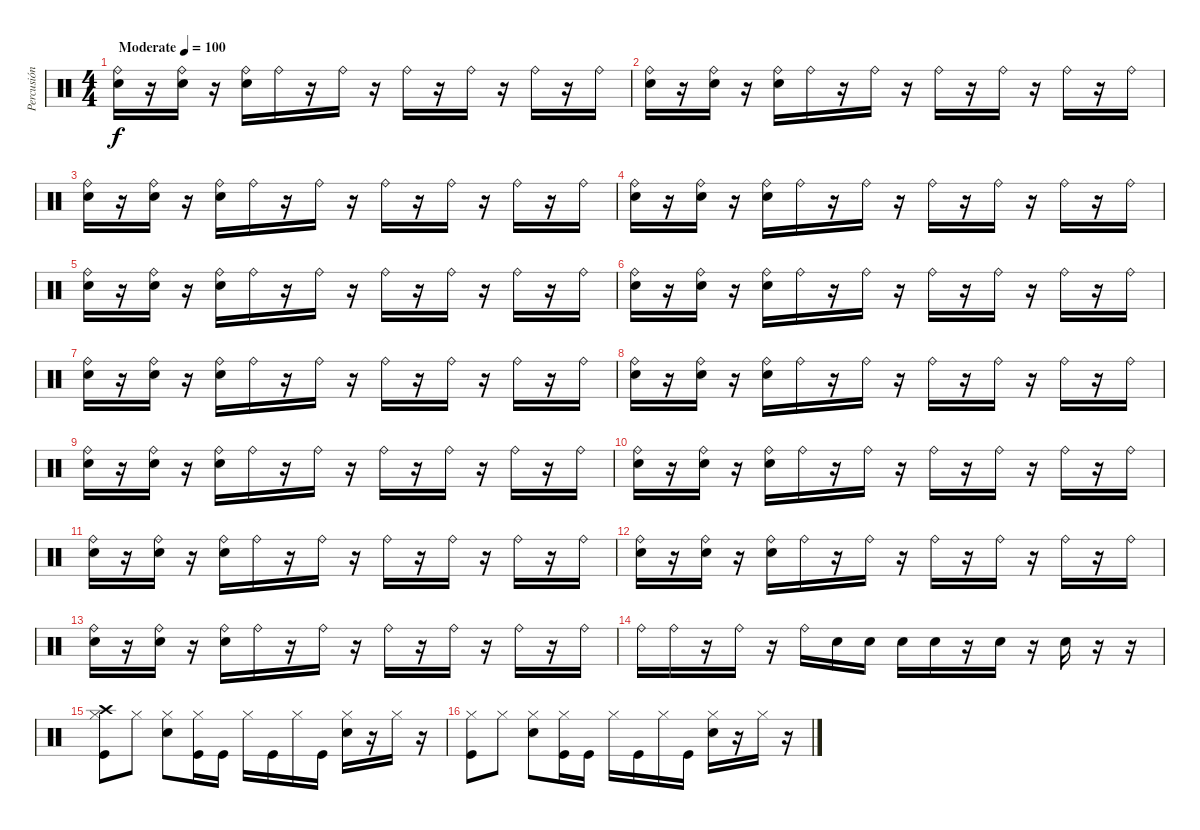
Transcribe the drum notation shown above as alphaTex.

\track ("Percusión" "Percusión") {instrument percussion}
\staff {score}
\articulation defaults
\ts (4 4)
\tempo (100 "Moderate")
\clef neutral
\ks c
("Ride (bell)" "Electric Snare (hit)").16{dy f} r.16 ("Ride (bell)" "Electric Snare (hit)").16 r.16 ("Ride (bell)" "Electric Snare (hit)").16 "Ride (bell)".16 r.16 "Ride (bell)".16 r.16 "Ride (bell)".16 r.16 "Ride (bell)".16 r.16 "Ride (bell)".16 r.16 "Ride (bell)".16 |
("Ride (bell)" "Electric Snare (hit)").16 r.16 ("Ride (bell)" "Electric Snare (hit)").16 r.16 ("Ride (bell)" "Electric Snare (hit)").16 "Ride (bell)".16 r.16 "Ride (bell)".16 r.16 "Ride (bell)".16 r.16 "Ride (bell)".16 r.16 "Ride (bell)".16 r.16 "Ride (bell)".16 |
("Ride (bell)" "Electric Snare (hit)").16 r.16 ("Ride (bell)" "Electric Snare (hit)").16 r.16 ("Ride (bell)" "Electric Snare (hit)").16 "Ride (bell)".16 r.16 "Ride (bell)".16 r.16 "Ride (bell)".16 r.16 "Ride (bell)".16 r.16 "Ride (bell)".16 r.16 "Ride (bell)".16 |
("Ride (bell)" "Electric Snare (hit)").16 r.16 ("Ride (bell)" "Electric Snare (hit)").16 r.16 ("Ride (bell)" "Electric Snare (hit)").16 "Ride (bell)".16 r.16 "Ride (bell)".16 r.16 "Ride (bell)".16 r.16 "Ride (bell)".16 r.16 "Ride (bell)".16 r.16 "Ride (bell)".16 |
("Ride (bell)" "Electric Snare (hit)").16 r.16 ("Ride (bell)" "Electric Snare (hit)").16 r.16 ("Ride (bell)" "Electric Snare (hit)").16 "Ride (bell)".16 r.16 "Ride (bell)".16 r.16 "Ride (bell)".16 r.16 "Ride (bell)".16 r.16 "Ride (bell)".16 r.16 "Ride (bell)".16 |
("Ride (bell)" "Electric Snare (hit)").16 r.16 ("Ride (bell)" "Electric Snare (hit)").16 r.16 ("Ride (bell)" "Electric Snare (hit)").16 "Ride (bell)".16 r.16 "Ride (bell)".16 r.16 "Ride (bell)".16 r.16 "Ride (bell)".16 r.16 "Ride (bell)".16 r.16 "Ride (bell)".16 |
("Ride (bell)" "Electric Snare (hit)").16 r.16 ("Ride (bell)" "Electric Snare (hit)").16 r.16 ("Ride (bell)" "Electric Snare (hit)").16 "Ride (bell)".16 r.16 "Ride (bell)".16 r.16 "Ride (bell)".16 r.16 "Ride (bell)".16 r.16 "Ride (bell)".16 r.16 "Ride (bell)".16 |
("Ride (bell)" "Electric Snare (hit)").16 r.16 ("Ride (bell)" "Electric Snare (hit)").16 r.16 ("Ride (bell)" "Electric Snare (hit)").16 "Ride (bell)".16 r.16 "Ride (bell)".16 r.16 "Ride (bell)".16 r.16 "Ride (bell)".16 r.16 "Ride (bell)".16 r.16 "Ride (bell)".16 |
("Ride (bell)" "Electric Snare (hit)").16 r.16 ("Ride (bell)" "Electric Snare (hit)").16 r.16 ("Ride (bell)" "Electric Snare (hit)").16 "Ride (bell)".16 r.16 "Ride (bell)".16 r.16 "Ride (bell)".16 r.16 "Ride (bell)".16 r.16 "Ride (bell)".16 r.16 "Ride (bell)".16 |
("Ride (bell)" "Electric Snare (hit)").16 r.16 ("Ride (bell)" "Electric Snare (hit)").16 r.16 ("Ride (bell)" "Electric Snare (hit)").16 "Ride (bell)".16 r.16 "Ride (bell)".16 r.16 "Ride (bell)".16 r.16 "Ride (bell)".16 r.16 "Ride (bell)".16 r.16 "Ride (bell)".16 |
("Ride (bell)" "Electric Snare (hit)").16 r.16 ("Ride (bell)" "Electric Snare (hit)").16 r.16 ("Ride (bell)" "Electric Snare (hit)").16 "Ride (bell)".16 r.16 "Ride (bell)".16 r.16 "Ride (bell)".16 r.16 "Ride (bell)".16 r.16 "Ride (bell)".16 r.16 "Ride (bell)".16 |
("Ride (bell)" "Electric Snare (hit)").16 r.16 ("Ride (bell)" "Electric Snare (hit)").16 r.16 ("Ride (bell)" "Electric Snare (hit)").16 "Ride (bell)".16 r.16 "Ride (bell)".16 r.16 "Ride (bell)".16 r.16 "Ride (bell)".16 r.16 "Ride (bell)".16 r.16 "Ride (bell)".16 |
("Ride (bell)" "Electric Snare (hit)").16 r.16 ("Ride (bell)" "Electric Snare (hit)").16 r.16 ("Ride (bell)" "Electric Snare (hit)").16 "Ride (bell)".16 r.16 "Ride (bell)".16 r.16 "Ride (bell)".16 r.16 "Ride (bell)".16 r.16 "Ride (bell)".16 r.16 "Ride (bell)".16 |
"Ride (bell)".16 "Ride (bell)".16 r.16 "Ride (bell)".16 r.16 "Ride (bell)".16 "Electric Snare (hit)".16 "Electric Snare (hit)".16 "Electric Snare (hit)".16 "Electric Snare (hit)".16 r.16 "Electric Snare (hit)".16 r.16 "Electric Snare (hit)".16 r.16 r.16 |
("Hi-Hat (closed)" "Kick (hit)" "Crash high (hit)").8 "Hi-Hat (closed)".8 ("Hi-Hat (closed)" "Electric Snare (hit)").8 ("Hi-Hat (closed)" "Kick (hit)").16 "Kick (hit)".16 "Hi-Hat (closed)".16 "Kick (hit)".16 "Hi-Hat (closed)".16 "Kick (hit)".16 ("Hi-Hat (closed)" "Electric Snare (hit)").16 r.16 "Hi-Hat (closed)".16 r.16 |
("Hi-Hat (closed)" "Kick (hit)").8 "Hi-Hat (closed)".8 ("Hi-Hat (closed)" "Electric Snare (hit)").8 ("Hi-Hat (closed)" "Kick (hit)").16 "Kick (hit)".16 "Hi-Hat (closed)".16 "Kick (hit)".16 "Hi-Hat (closed)".16 "Kick (hit)".16 ("Hi-Hat (closed)" "Electric Snare (hit)").16 r.16 "Hi-Hat (closed)".16 r.16
